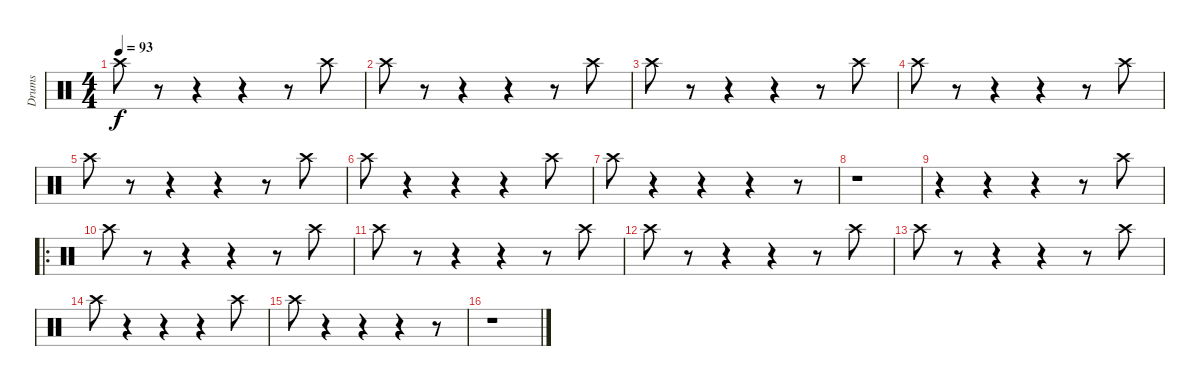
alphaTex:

\track ("Drums" "Drums") {instrument percussion}
\staff {score}
\articulation defaults
\ts (4 4)
\tempo 93
\clef neutral
\ks c "Crash high (hit)".8{dy f}
r.8 r.4 r.4 r.8 "Crash high (hit)".8 |
"Crash high (hit)".8 r.8 r.4 r.4 r.8 "Crash high (hit)".8 |
"Crash high (hit)".8 r.8 r.4 r.4 r.8 "Crash high (hit)".8 |
"Crash high (hit)".8 r.8 r.4 r.4 r.8 "Crash high (hit)".8 |
"Crash high (hit)".8 r.8 r.4 r.4 r.8 "Crash high (hit)".8 |
"Crash high (hit)".8 r.4 r.4 r.4 "Crash high (hit)".8 |
"Crash high (hit)".8 r.4 r.4 r.4 r.8 |
r.1 |
r.4 r.4 r.4 r.8 "Crash high (hit)".8 |
\ro "Crash high (hit)".8
r.8 r.4 r.4 r.8 "Crash high (hit)".8 |
"Crash high (hit)".8 r.8 r.4 r.4 r.8 "Crash high (hit)".8 |
"Crash high (hit)".8 r.8 r.4 r.4 r.8 "Crash high (hit)".8 |
"Crash high (hit)".8 r.8 r.4 r.4 r.8 "Crash high (hit)".8 |
"Crash high (hit)".8 r.4 r.4 r.4 "Crash high (hit)".8 |
"Crash high (hit)".8 r.4 r.4 r.4 r.8 |
r.1
